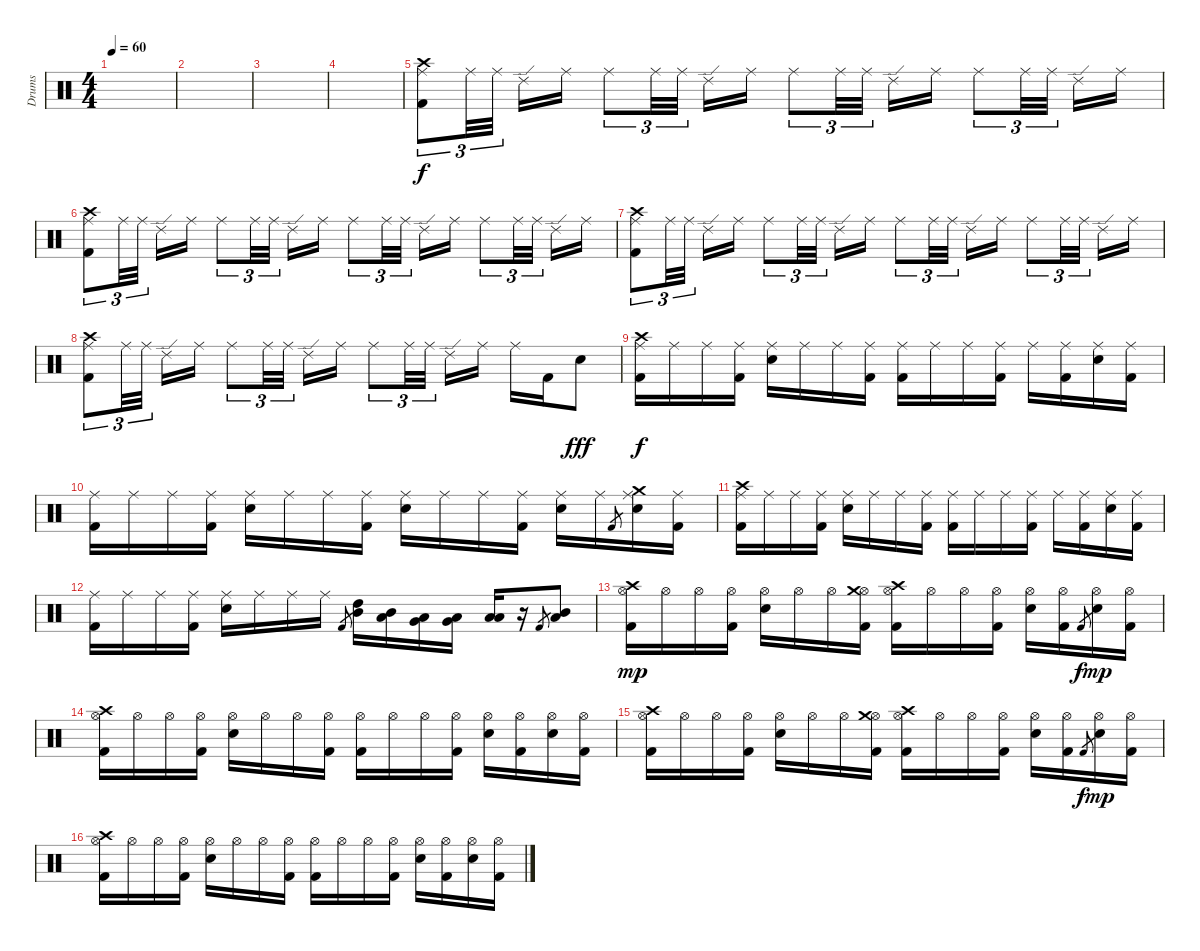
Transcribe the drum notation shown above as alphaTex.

\track ("Drums" "Drums") {instrument percussion}
\staff {score}
\articulation defaults
\ts (4 4)
\tempo 60
\clef neutral
\ks c
|
|
|
|
("Crash high (hit)" "Ride (middle)" "Kick (hit) 2").8{tu (3 2)} "Ride (middle)".32{tu (3 2)} "Ride (middle)".32{tu (3 2)} "Ride (edge) 2".16 "Ride (middle)".16 "Ride (middle)".8{tu (3 2)} "Ride (middle)".32{tu (3 2)} "Ride (middle)".32{tu (3 2)} "Ride (edge) 2".16 "Ride (middle)".16 "Ride (middle)".8{tu (3 2)} "Ride (middle)".32{tu (3 2)} "Ride (middle)".32{tu (3 2)} "Ride (edge) 2".16 "Ride (middle)".16 "Ride (middle)".8{tu (3 2)} "Ride (middle)".32{tu (3 2)} "Ride (middle)".32{tu (3 2)} "Ride (edge) 2".16 "Ride (middle)".16 |
("Crash high (hit)" "Ride (middle)" "Kick (hit) 2").8{tu (3 2)} "Ride (middle)".32{tu (3 2)} "Ride (middle)".32{tu (3 2)} "Ride (edge) 2".16 "Ride (middle)".16 "Ride (middle)".8{tu (3 2)} "Ride (middle)".32{tu (3 2)} "Ride (middle)".32{tu (3 2)} "Ride (edge) 2".16 "Ride (middle)".16 "Ride (middle)".8{tu (3 2)} "Ride (middle)".32{tu (3 2)} "Ride (middle)".32{tu (3 2)} "Ride (edge) 2".16 "Ride (middle)".16 "Ride (middle)".8{tu (3 2)} "Ride (middle)".32{tu (3 2)} "Ride (middle)".32{tu (3 2)} "Ride (edge) 2".16 "Ride (middle)".16 |
("Crash high (hit)" "Ride (middle)" "Kick (hit) 2").8{tu (3 2)} "Ride (middle)".32{tu (3 2)} "Ride (middle)".32{tu (3 2)} "Ride (edge) 2".16 "Ride (middle)".16 "Ride (middle)".8{tu (3 2)} "Ride (middle)".32{tu (3 2)} "Ride (middle)".32{tu (3 2)} "Ride (edge) 2".16 "Ride (middle)".16 "Ride (middle)".8{tu (3 2)} "Ride (middle)".32{tu (3 2)} "Ride (middle)".32{tu (3 2)} "Ride (edge) 2".16 "Ride (middle)".16 "Ride (middle)".8{tu (3 2)} "Ride (middle)".32{tu (3 2)} "Ride (middle)".32{tu (3 2)} "Ride (edge) 2".16 "Ride (middle)".16 |
("Crash high (hit)" "Ride (middle)" "Kick (hit) 2").8{tu (3 2)} "Ride (middle)".32{tu (3 2)} "Ride (middle)".32{tu (3 2)} "Ride (edge) 2".16 "Ride (middle)".16 "Ride (middle)".8{tu (3 2)} "Ride (middle)".32{tu (3 2)} "Ride (middle)".32{tu (3 2)} "Ride (edge) 2".16 "Ride (middle)".16 "Ride (middle)".8{tu (3 2)} "Ride (middle)".32{tu (3 2)} "Ride (middle)".32{tu (3 2)} "Ride (edge) 2".16 "Ride (middle)".16 "Ride (middle)".16 "Kick (hit) 2".16 "Snare (hit) 2".8{dy fff} |
("Ride (middle)" "Crash high (hit)" "Kick (hit) 2").16{dy f} "Ride (middle)".16 "Ride (middle)".16 ("Ride (middle)" "Kick (hit) 2").16 ("Ride (middle)" "Snare (hit) 2").16 "Ride (middle)".16 "Ride (middle)".16 ("Ride (middle)" "Kick (hit) 2").16 ("Ride (middle)" "Kick (hit) 2").16 "Ride (middle)".16 "Ride (middle)".16 ("Ride (middle)" "Kick (hit) 2").16 "Ride (middle)".16 ("Ride (middle)" "Kick (hit) 2").16 ("Ride (middle)" "Snare (hit) 2").16 ("Ride (middle)" "Kick (hit) 2").16 |
("Ride (middle)" "Kick (hit) 2").16 "Ride (middle)".16 "Ride (middle)".16 ("Ride (middle)" "Kick (hit) 2").16 ("Ride (middle)" "Snare (hit) 2").16 "Ride (middle)".16 "Ride (middle)".16 ("Ride (middle)" "Kick (hit) 2").16 ("Ride (middle)" "Snare (hit) 2").16 "Ride (middle)".16 "Ride (middle)".16 ("Ride (middle)" "Kick (hit) 2").16 ("Ride (middle)" "Snare (hit) 2").16 "Ride (middle)".16 "Kick (hit) 2".8{gr} ("Ride (middle)" "Crash medium (hit)" "Snare (hit) 2").16 ("Ride (middle)" "Kick (hit) 2").16 |
("Ride (middle)" "Crash high (hit)" "Kick (hit) 2").16 "Ride (middle)".16 "Ride (middle)".16 ("Ride (middle)" "Kick (hit) 2").16 ("Ride (middle)" "Snare (hit) 2").16 "Ride (middle)".16 "Ride (middle)".16 ("Ride (middle)" "Kick (hit) 2").16 ("Ride (middle)" "Kick (hit) 2").16 "Ride (middle)".16 "Ride (middle)".16 ("Ride (middle)" "Kick (hit) 2").16 "Ride (middle)".16 ("Ride (middle)" "Kick (hit) 2").16 ("Ride (middle)" "Snare (hit) 2").16 ("Ride (middle)" "Kick (hit) 2").16 |
("Ride (middle)" "Kick (hit) 2").16 "Ride (middle)".16 "Ride (middle)".16 ("Ride (middle)" "Kick (hit) 2").16 ("Ride (middle)" "Snare (hit) 2").16 "Ride (middle)".16 "Ride (middle)".16 "Ride (middle)".16 "Kick (hit) 2".8{gr} ("High Tom (hit)" "Mid Tom (hit)").16 ("Mid Tom (hit)" "Low Tom (hit)").16 ("Low Tom (hit)" "Very Low Tom (hit)").16 ("Very Low Tom (hit)" "Low Floor Tom (hit)").16 ("Low Floor Tom (hit)" "Low Floor Tom (hit)").16 r.16 "Kick (hit) 2".8{gr} ("Mid Tom (hit)" "Low Tom (hit)").8 |
("Hi-Hat (open)" "Crash high (hit)" "Kick (hit) 2").16{dy mp} "Hi-Hat (open)".16 "Hi-Hat (open)".16 ("Hi-Hat (open)" "Kick (hit) 2").16 ("Hi-Hat (open)" "Snare (hit) 2").16 "Hi-Hat (open)".16 "Hi-Hat (open)".16 ("Hi-Hat (open)" "Crash medium (hit)" "Kick (hit) 2").16 ("Hi-Hat (open)" "Crash high (hit)" "Kick (hit) 2").16 "Hi-Hat (open)".16 "Hi-Hat (open)".16 ("Hi-Hat (open)" "Kick (hit) 2").16 ("Hi-Hat (open)" "Snare (hit) 2").16 ("Hi-Hat (open)" "Kick (hit) 2").16 "Kick (hit) 2".8{gr dy f} ("Hi-Hat (open)" "Snare (hit) 2").16{dy mp} ("Hi-Hat (open)" "Kick (hit) 2").16 |
("Hi-Hat (open)" "Crash high (hit)" "Kick (hit) 2").16 "Hi-Hat (open)".16 "Hi-Hat (open)".16 ("Hi-Hat (open)" "Kick (hit) 2").16 ("Hi-Hat (open)" "Snare (hit) 2").16 "Hi-Hat (open)".16 "Hi-Hat (open)".16 ("Hi-Hat (open)" "Kick (hit) 2").16 ("Hi-Hat (open)" "Kick (hit) 2").16 "Hi-Hat (open)".16 "Hi-Hat (open)".16 ("Hi-Hat (open)" "Kick (hit) 2").16 ("Hi-Hat (open)" "Snare (hit) 2").16 ("Hi-Hat (open)" "Kick (hit) 2").16 ("Hi-Hat (open)" "Snare (hit) 2").16 ("Hi-Hat (open)" "Kick (hit) 2").16 |
("Hi-Hat (open)" "Crash high (hit)" "Kick (hit) 2").16 "Hi-Hat (open)".16 "Hi-Hat (open)".16 ("Hi-Hat (open)" "Kick (hit) 2").16 ("Hi-Hat (open)" "Snare (hit) 2").16 "Hi-Hat (open)".16 "Hi-Hat (open)".16 ("Hi-Hat (open)" "Crash medium (hit)" "Kick (hit) 2").16 ("Hi-Hat (open)" "Crash high (hit)" "Kick (hit) 2").16 "Hi-Hat (open)".16 "Hi-Hat (open)".16 ("Hi-Hat (open)" "Kick (hit) 2").16 ("Hi-Hat (open)" "Snare (hit) 2").16 ("Hi-Hat (open)" "Kick (hit) 2").16 "Kick (hit) 2".8{gr dy f} ("Hi-Hat (open)" "Snare (hit) 2").16{dy mp} ("Hi-Hat (open)" "Kick (hit) 2").16 |
("Hi-Hat (open)" "Crash high (hit)" "Kick (hit) 2").16 "Hi-Hat (open)".16 "Hi-Hat (open)".16 ("Hi-Hat (open)" "Kick (hit) 2").16 ("Hi-Hat (open)" "Snare (hit) 2").16 "Hi-Hat (open)".16 "Hi-Hat (open)".16 ("Hi-Hat (open)" "Kick (hit) 2").16 ("Hi-Hat (open)" "Kick (hit) 2").16 "Hi-Hat (open)".16 "Hi-Hat (open)".16 ("Hi-Hat (open)" "Kick (hit) 2").16 ("Hi-Hat (open)" "Snare (hit) 2").16 ("Hi-Hat (open)" "Kick (hit) 2").16 ("Hi-Hat (open)" "Snare (hit) 2").16 ("Hi-Hat (open)" "Kick (hit) 2").16
